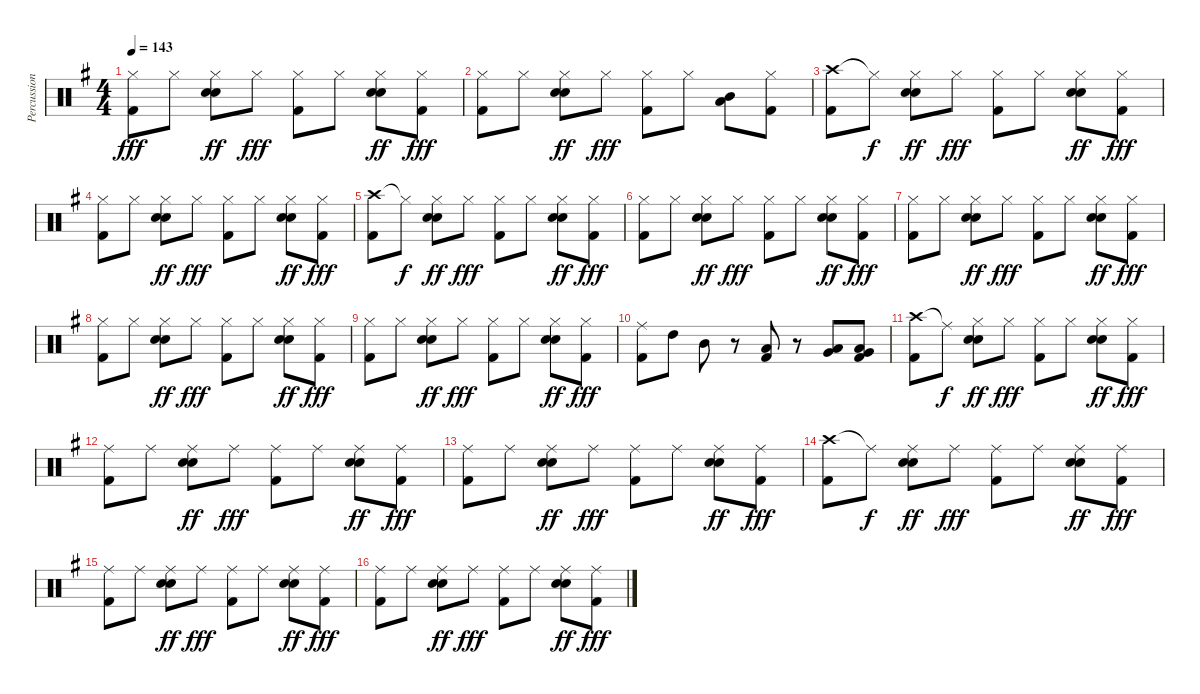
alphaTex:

\track ("Percussion" "Percussion") {instrument percussion}
\staff {score}
\articulation defaults
\ts (4 4)
\tempo 143
\clef neutral
\ks g
("Hi-Hat (closed)" "Kick (hit) 2").8{dy fff} "Hi-Hat (closed)".8 ("Hi-Hat (closed)" "Snare (hit) 2" "Electric Snare (hit)").8{dy ff} "Hi-Hat (closed)".8{dy fff} ("Hi-Hat (closed)" "Kick (hit) 2").8 "Hi-Hat (closed)".8 ("Hi-Hat (closed)" "Snare (hit) 2" "Electric Snare (hit)").8{dy ff} ("Hi-Hat (closed)" "Kick (hit) 2").8{dy fff} |
("Hi-Hat (closed)" "Kick (hit) 2").8 "Hi-Hat (closed)".8 ("Hi-Hat (closed)" "Snare (hit) 2" "Electric Snare (hit)").8{dy ff} "Hi-Hat (closed)".8{dy fff} ("Hi-Hat (closed)" "Kick (hit) 2").8 "Hi-Hat (closed)".8 ("Mid Tom (hit)" "Low Floor Tom (hit)").8 ("Hi-Hat (closed)" "Kick (hit) 2").8 |
("Crash high (hit)" "Kick (hit) 2").8 "Hi-Hat (closed)"{t}.8{dy f} ("Hi-Hat (closed)" "Snare (hit) 2" "Electric Snare (hit)").8{dy ff} "Hi-Hat (closed)".8{dy fff} ("Hi-Hat (closed)" "Kick (hit) 2").8 "Hi-Hat (closed)".8 ("Hi-Hat (closed)" "Snare (hit) 2" "Electric Snare (hit)").8{dy ff} ("Hi-Hat (closed)" "Kick (hit) 2").8{dy fff} |
("Hi-Hat (closed)" "Kick (hit) 2").8 "Hi-Hat (closed)".8 ("Hi-Hat (closed)" "Snare (hit) 2" "Electric Snare (hit)").8{dy ff} "Hi-Hat (closed)".8{dy fff} ("Hi-Hat (closed)" "Kick (hit) 2").8 "Hi-Hat (closed)".8 ("Hi-Hat (closed)" "Snare (hit) 2" "Electric Snare (hit)").8{dy ff} ("Hi-Hat (closed)" "Kick (hit) 2").8{dy fff} |
("Crash high (hit)" "Kick (hit) 2").8 "Hi-Hat (closed)"{t}.8{dy f} ("Hi-Hat (closed)" "Snare (hit) 2" "Electric Snare (hit)").8{dy ff} "Hi-Hat (closed)".8{dy fff} ("Hi-Hat (closed)" "Kick (hit) 2").8 "Hi-Hat (closed)".8 ("Hi-Hat (closed)" "Snare (hit) 2" "Electric Snare (hit)").8{dy ff} ("Hi-Hat (closed)" "Kick (hit) 2").8{dy fff} |
("Hi-Hat (closed)" "Kick (hit) 2").8 "Hi-Hat (closed)".8 ("Hi-Hat (closed)" "Snare (hit) 2" "Electric Snare (hit)").8{dy ff} "Hi-Hat (closed)".8{dy fff} ("Hi-Hat (closed)" "Kick (hit) 2").8 "Hi-Hat (closed)".8 ("Hi-Hat (closed)" "Snare (hit) 2" "Electric Snare (hit)").8{dy ff} ("Hi-Hat (closed)" "Kick (hit) 2").8{dy fff} |
("Hi-Hat (closed)" "Kick (hit) 2").8 "Hi-Hat (closed)".8 ("Hi-Hat (closed)" "Snare (hit) 2" "Electric Snare (hit)").8{dy ff} "Hi-Hat (closed)".8{dy fff} ("Hi-Hat (closed)" "Kick (hit) 2").8 "Hi-Hat (closed)".8 ("Hi-Hat (closed)" "Snare (hit) 2" "Electric Snare (hit)").8{dy ff} ("Hi-Hat (closed)" "Kick (hit) 2").8{dy fff} |
("Hi-Hat (closed)" "Kick (hit) 2").8 "Hi-Hat (closed)".8 ("Hi-Hat (closed)" "Snare (hit) 2" "Electric Snare (hit)").8{dy ff} "Hi-Hat (closed)".8{dy fff} ("Hi-Hat (closed)" "Kick (hit) 2").8 "Hi-Hat (closed)".8 ("Hi-Hat (closed)" "Snare (hit) 2" "Electric Snare (hit)").8{dy ff} ("Hi-Hat (closed)" "Kick (hit) 2").8{dy fff} |
("Hi-Hat (closed)" "Kick (hit) 2").8 "Hi-Hat (closed)".8 ("Hi-Hat (closed)" "Snare (hit) 2" "Electric Snare (hit)").8{dy ff} "Hi-Hat (closed)".8{dy fff} ("Hi-Hat (closed)" "Kick (hit) 2").8 "Hi-Hat (closed)".8 ("Hi-Hat (closed)" "Snare (hit) 2" "Electric Snare (hit)").8{dy ff} ("Hi-Hat (closed)" "Kick (hit) 2").8{dy fff} |
("Ride (middle)" "Kick (hit) 2").8 "High Tom (hit)".8{balance 0} "Mid Tom (hit)".8 r.8 ("Low Tom (hit)" "Kick (hit) 2").8{balance 8} r.8 ("Very Low Tom (hit)" "Low Floor Tom (hit)").8{balance 16} ("Very Low Tom (hit)" "Low Floor Tom (hit)" "Kick (hit) 2").8 |
("Crash high (hit)" "Kick (hit) 2").8{balance 8} "Ride (middle)"{t}.8{dy f} ("Hi-Hat (closed)" "Snare (hit) 2" "Electric Snare (hit)").8{dy ff} "Hi-Hat (closed)".8{dy fff} ("Hi-Hat (closed)" "Kick (hit) 2").8 "Hi-Hat (closed)".8 ("Hi-Hat (closed)" "Snare (hit) 2" "Electric Snare (hit)").8{dy ff} ("Hi-Hat (closed)" "Kick (hit) 2").8{dy fff} |
("Ride (middle)" "Kick (hit) 2").8 "Ride (middle)".8 ("Ride (middle)" "Snare (hit) 2" "Electric Snare (hit)").8{dy ff} "Ride (middle)".8{dy fff} ("Ride (middle)" "Kick (hit) 2").8 "Ride (middle)".8 ("Ride (middle)" "Snare (hit) 2" "Electric Snare (hit)").8{dy ff} ("Ride (middle)" "Kick (hit) 2").8{dy fff} |
("Ride (middle)" "Kick (hit) 2").8 "Ride (middle)".8 ("Ride (middle)" "Snare (hit) 2" "Electric Snare (hit)").8{dy ff} "Ride (middle)".8{dy fff} ("Ride (middle)" "Kick (hit) 2").8 "Ride (middle)".8 ("Ride (middle)" "Snare (hit) 2" "Electric Snare (hit)").8{dy ff} ("Ride (middle)" "Kick (hit) 2").8{dy fff} |
("Crash high (hit)" "Kick (hit) 2").8 "Ride (middle)"{t}.8{dy f} ("Ride (middle)" "Snare (hit) 2" "Electric Snare (hit)").8{dy ff} "Ride (middle)".8{dy fff} ("Ride (middle)" "Kick (hit) 2").8 "Ride (middle)".8 ("Ride (middle)" "Snare (hit) 2" "Electric Snare (hit)").8{dy ff} ("Ride (middle)" "Kick (hit) 2").8{dy fff} |
("Ride (middle)" "Kick (hit) 2").8 "Ride (middle)".8 ("Ride (middle)" "Snare (hit) 2" "Electric Snare (hit)").8{dy ff} "Ride (middle)".8{dy fff} ("Ride (middle)" "Kick (hit) 2").8 "Ride (middle)".8 ("Ride (middle)" "Snare (hit) 2" "Electric Snare (hit)").8{dy ff} ("Ride (middle)" "Kick (hit) 2").8{dy fff} |
("Ride (middle)" "Kick (hit) 2").8 "Ride (middle)".8 ("Ride (middle)" "Snare (hit) 2" "Electric Snare (hit)").8{dy ff} "Ride (middle)".8{dy fff} ("Ride (middle)" "Kick (hit) 2").8 "Ride (middle)".8 ("Ride (middle)" "Snare (hit) 2" "Electric Snare (hit)").8{dy ff} ("Ride (middle)" "Kick (hit) 2").8{dy fff}
